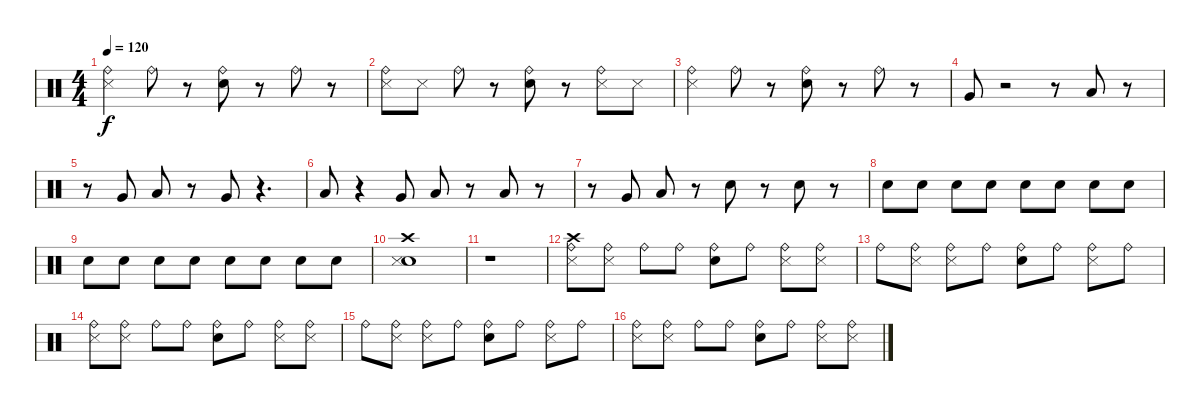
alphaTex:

\track "" {instrument percussion}
\staff {score}
\articulation defaults
\ts (4 4)
\tempo 120
\clef neutral
\ks c
("Metronome (hit)" "Ride (bell)").4{dy f} "Ride (bell)".8 r.8 ("Electric Snare (hit)" "Ride (bell)").8 r.8 "Ride (bell)".8 r.8 |
("Metronome (hit)" "Ride (bell)").8 "Metronome (hit)".8 "Ride (bell)".8 r.8 ("Electric Snare (hit)" "Ride (bell)").8 r.8 ("Metronome (hit)" "Ride (bell)").8 "Metronome (hit)".8 |
("Metronome (hit)" "Ride (bell)").4 "Ride (bell)".8 r.8 ("Electric Snare (hit)" "Ride (bell)").8 r.8 "Ride (bell)".8 r.8 |
"Very Low Tom (hit)".8 r.2 r.8 "Low Floor Tom (hit)".8 r.8 |
r.8 "Very Low Tom (hit)".8 "Low Floor Tom (hit)".8 r.8 "Very Low Tom (hit)".8 r.4{d} |
"Low Floor Tom (hit)".8 r.4 "Very Low Tom (hit)".8 "Low Floor Tom (hit)".8 r.8 "Low Floor Tom (hit)".8 r.8 |
r.8 "Very Low Tom (hit)".8 "Low Floor Tom (hit)".8 r.8 "Electric Snare (hit)".8 r.8 "Electric Snare (hit)".8 r.8 |
"Electric Snare (hit)".8 "Electric Snare (hit)".8 "Electric Snare (hit)".8 "Electric Snare (hit)".8 "Electric Snare (hit)".8 "Electric Snare (hit)".8 "Electric Snare (hit)".8 "Electric Snare (hit)".8 |
"Electric Snare (hit)".8 "Electric Snare (hit)".8 "Electric Snare (hit)".8 "Electric Snare (hit)".8 "Electric Snare (hit)".8 "Electric Snare (hit)".8 "Electric Snare (hit)".8 "Electric Snare (hit)".8 |
("Electric Snare (hit)" "Crash high (hit)" "Metronome (hit)").1 |
r.1 |
("Metronome (hit)" "Crash high (hit)" "Ride (bell)").8 ("Metronome (hit)" "Ride (bell)").8 "Ride (bell)".8 "Ride (bell)".8 ("Electric Snare (hit)" "Ride (bell)").8 "Ride (bell)".8 ("Metronome (hit)" "Ride (bell)").8 ("Metronome (hit)" "Ride (bell)").8 |
"Ride (bell)".8 ("Metronome (hit)" "Ride (bell)").8 ("Metronome (hit)" "Ride (bell)").8 "Ride (bell)".8 ("Electric Snare (hit)" "Ride (bell)").8 "Ride (bell)".8 ("Metronome (hit)" "Ride (bell)").8 "Ride (bell)".8 |
("Metronome (hit)" "Ride (bell)").8 ("Metronome (hit)" "Ride (bell)").8 "Ride (bell)".8 "Ride (bell)".8 ("Electric Snare (hit)" "Ride (bell)").8 "Ride (bell)".8 ("Metronome (hit)" "Ride (bell)").8 ("Metronome (hit)" "Ride (bell)").8 |
"Ride (bell)".8 ("Metronome (hit)" "Ride (bell)").8 ("Metronome (hit)" "Ride (bell)").8 "Ride (bell)".8 ("Electric Snare (hit)" "Ride (bell)").8 "Ride (bell)".8 ("Metronome (hit)" "Ride (bell)").8 "Ride (bell)".8 |
("Metronome (hit)" "Ride (bell)").8 ("Metronome (hit)" "Ride (bell)").8 "Ride (bell)".8 "Ride (bell)".8 ("Electric Snare (hit)" "Ride (bell)").8 "Ride (bell)".8 ("Metronome (hit)" "Ride (bell)").8 ("Metronome (hit)" "Ride (bell)").8
